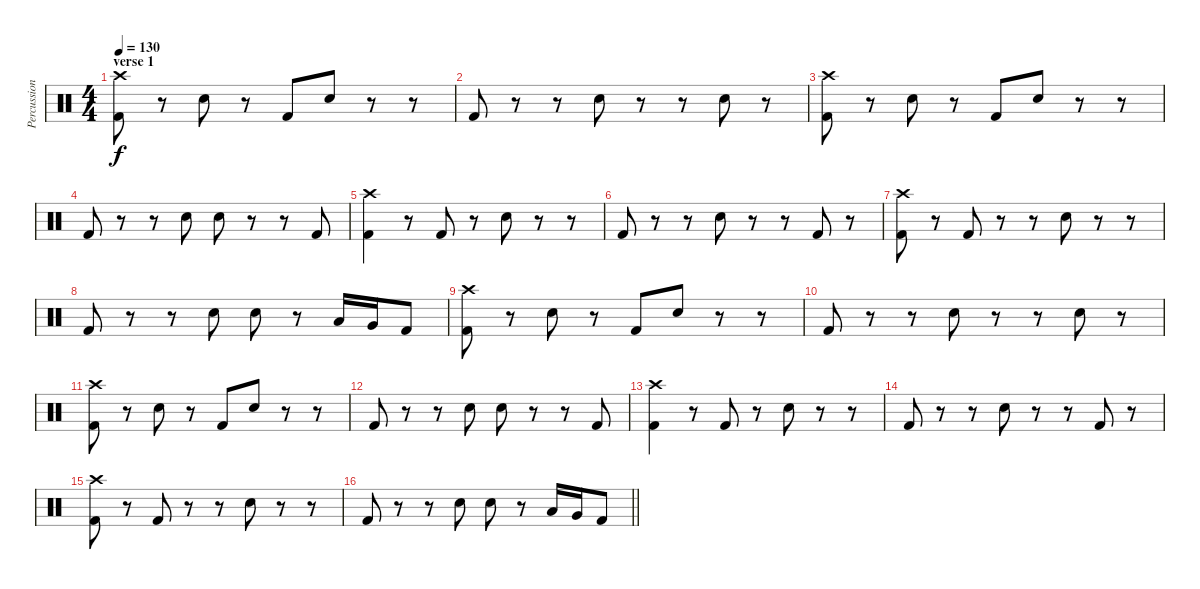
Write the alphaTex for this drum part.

\track ("Percussion" "Percussion") {instrument percussion}
\staff {score}
\articulation defaults
\ts (4 4)
\section ("" "verse 1")
\tempo 130
\clef neutral
\ks c
("Crash high (hit)" "Kick (hit) 2").8{dy f} r.8 "Snare (hit) 2".8 r.8 "Kick (hit) 2".8 "Snare (hit) 2".8 r.8 r.8 |
"Kick (hit) 2".8 r.8 r.8 "Snare (hit) 2".8 r.8 r.8 "Snare (hit) 2".8 r.8 |
("Crash high (hit)" "Kick (hit) 2").8 r.8 "Snare (hit) 2".8 r.8 "Kick (hit) 2".8 "Snare (hit) 2".8 r.8 r.8 |
"Kick (hit) 2".8 r.8 r.8 "Snare (hit) 2".8 "Snare (hit) 2".8 r.8 r.8 "Kick (hit) 2".8 |
("Crash high (hit)" "Kick (hit) 2").4 r.8 "Kick (hit) 2".8 r.8 "Snare (hit) 2".8 r.8 r.8 |
"Kick (hit) 2".8 r.8 r.8 "Snare (hit) 2".8 r.8 r.8 "Kick (hit) 2".8 r.8 |
("Crash high (hit)" "Kick (hit) 2").8 r.8 "Kick (hit) 2".8 r.8 r.8 "Snare (hit) 2".8 r.8 r.8 |
"Kick (hit) 2".8 r.8 r.8 "Snare (hit) 2".8 "Snare (hit) 2".8 r.8 "Low Tom (hit)".16 "Very Low Tom (hit)".16 "Kick (hit) 2".8 |
("Crash high (hit)" "Kick (hit) 2").8 r.8 "Snare (hit) 2".8 r.8 "Kick (hit) 2".8 "Snare (hit) 2".8 r.8 r.8 |
"Kick (hit) 2".8 r.8 r.8 "Snare (hit) 2".8 r.8 r.8 "Snare (hit) 2".8 r.8 |
("Crash high (hit)" "Kick (hit) 2").8 r.8 "Snare (hit) 2".8 r.8 "Kick (hit) 2".8 "Snare (hit) 2".8 r.8 r.8 |
"Kick (hit) 2".8 r.8 r.8 "Snare (hit) 2".8 "Snare (hit) 2".8 r.8 r.8 "Kick (hit) 2".8 |
("Crash high (hit)" "Kick (hit) 2").4 r.8 "Kick (hit) 2".8 r.8 "Snare (hit) 2".8 r.8 r.8 |
"Kick (hit) 2".8 r.8 r.8 "Snare (hit) 2".8 r.8 r.8 "Kick (hit) 2".8 r.8 |
("Crash high (hit)" "Kick (hit) 2").8 r.8 "Kick (hit) 2".8 r.8 r.8 "Snare (hit) 2".8 r.8 r.8 |
\barLineRight lightlight "Kick (hit) 2".8
r.8 r.8 "Snare (hit) 2".8 "Snare (hit) 2".8 r.8 "Low Tom (hit)".16 "Very Low Tom (hit)".16 "Kick (hit) 2".8
